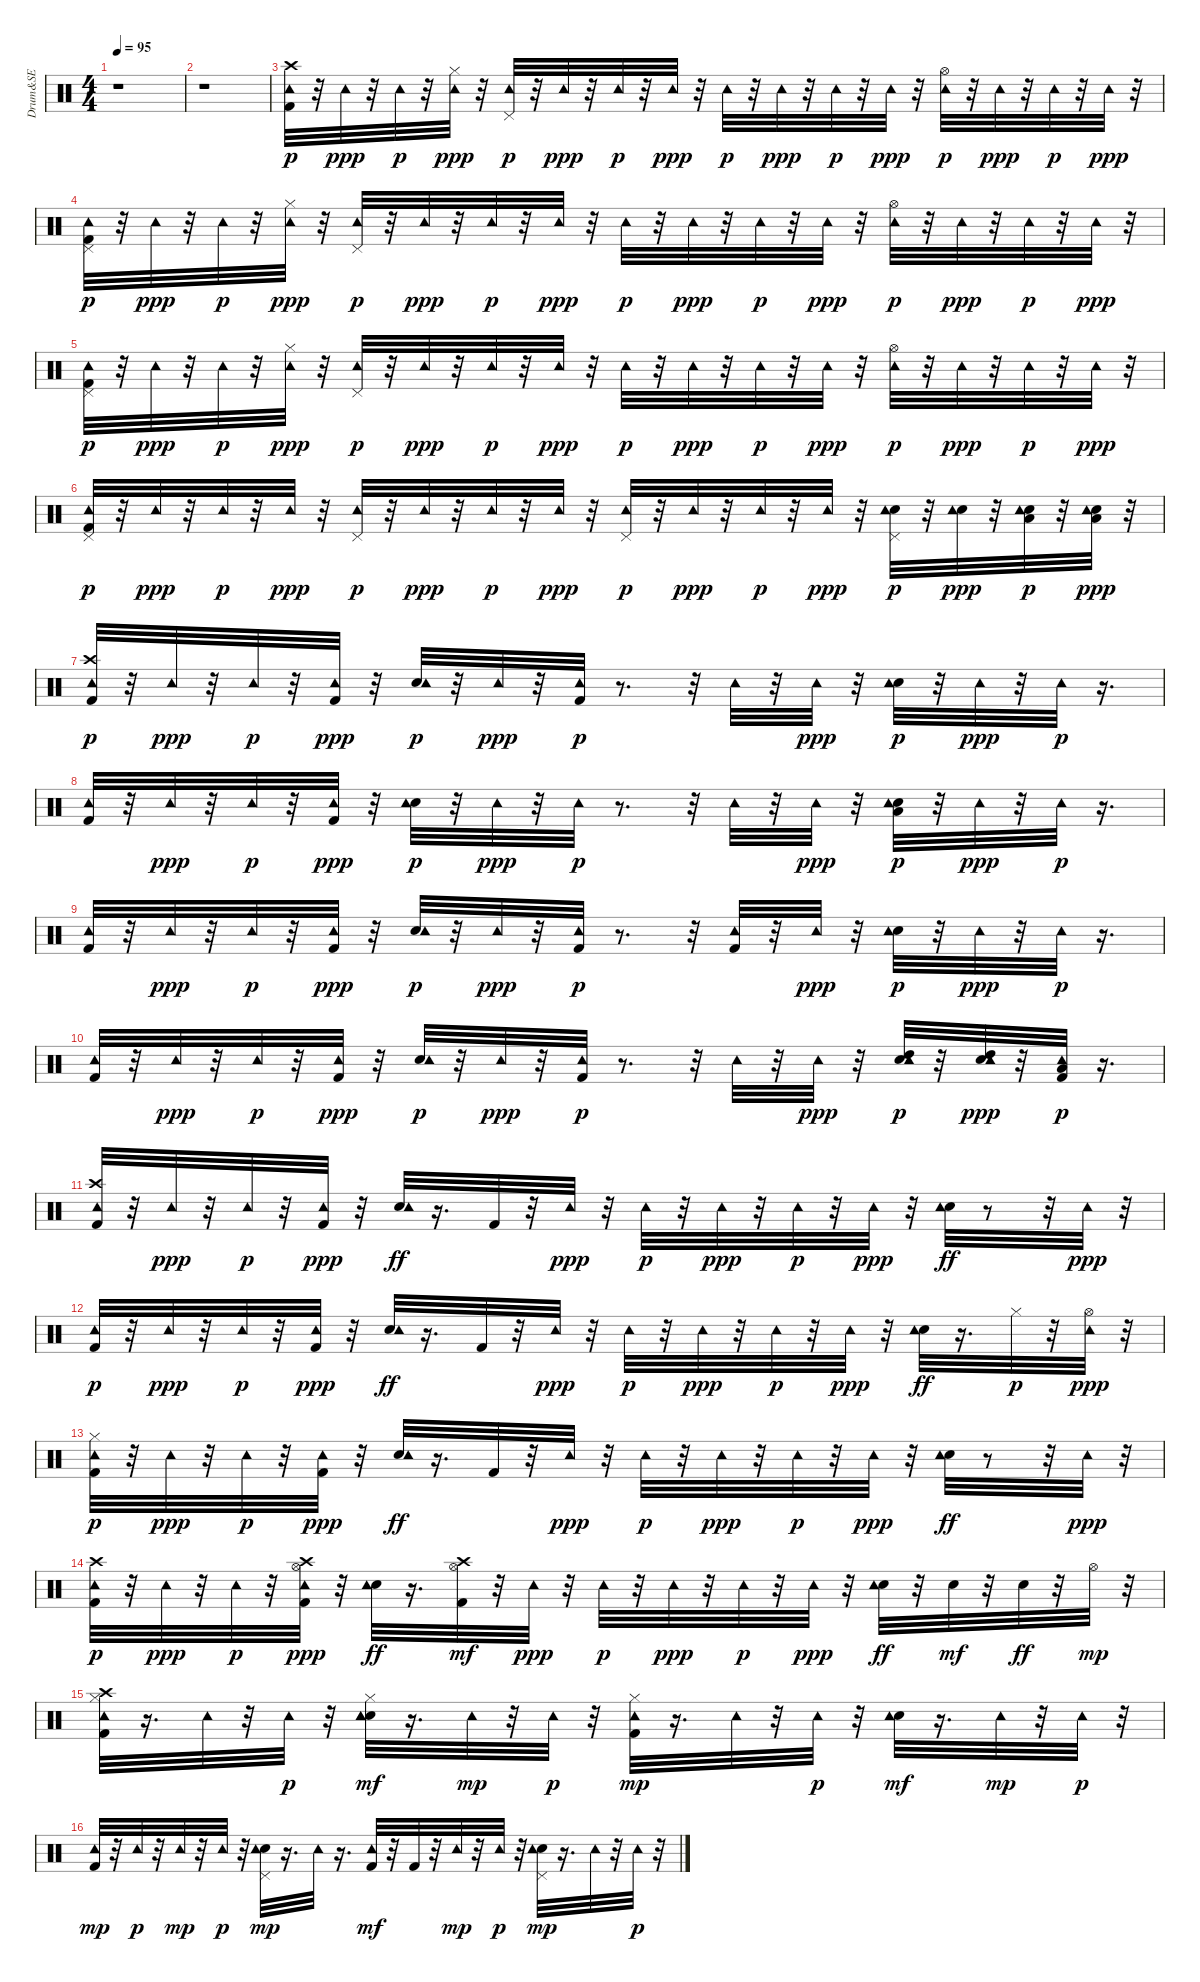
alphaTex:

\track ("Drum&SE" "Drum&SE") {instrument percussion}
\staff {score}
\articulation defaults
\ts (4 4)
\tempo 95
\clef neutral
\ks c
r.1{dy mp} |
r.1 |
("Kick (hit) 2" "Crash high (hit)" "Tambourine (hit)").32{dy p} r.32 "Tambourine (hit)".32{dy ppp} r.32 "Tambourine (hit)".32{dy p} r.32 ("Hi-Hat (closed)" "Tambourine (hit)").32{dy ppp} r.32 ("Pedal Hi-Hat (hit)" "Tambourine (hit)").32{dy p} r.32 "Tambourine (hit)".32{dy ppp} r.32 "Tambourine (hit)".32{dy p} r.32 "Tambourine (hit)".32{dy ppp} r.32 "Tambourine (hit)".32{dy p} r.32 "Tambourine (hit)".32{dy ppp} r.32 "Tambourine (hit)".32{dy p} r.32 "Tambourine (hit)".32{dy ppp} r.32 ("Hi-Hat (open)" "Tambourine (hit)").32{dy p} r.32 "Tambourine (hit)".32{dy ppp} r.32 "Tambourine (hit)".32{dy p} r.32 "Tambourine (hit)".32{dy ppp} r.32 |
("Kick (hit) 2" "Pedal Hi-Hat (hit)" "Tambourine (hit)").32{dy p} r.32 "Tambourine (hit)".32{dy ppp} r.32 "Tambourine (hit)".32{dy p} r.32 ("Hi-Hat (closed)" "Tambourine (hit)").32{dy ppp} r.32 ("Pedal Hi-Hat (hit)" "Tambourine (hit)").32{dy p} r.32 "Tambourine (hit)".32{dy ppp} r.32 "Tambourine (hit)".32{dy p} r.32 "Tambourine (hit)".32{dy ppp} r.32 "Tambourine (hit)".32{dy p} r.32 "Tambourine (hit)".32{dy ppp} r.32 "Tambourine (hit)".32{dy p} r.32 "Tambourine (hit)".32{dy ppp} r.32 ("Hi-Hat (open)" "Tambourine (hit)").32{dy p} r.32 "Tambourine (hit)".32{dy ppp} r.32 "Tambourine (hit)".32{dy p} r.32 "Tambourine (hit)".32{dy ppp} r.32 |
("Kick (hit) 2" "Pedal Hi-Hat (hit)" "Tambourine (hit)").32{dy p} r.32 "Tambourine (hit)".32{dy ppp} r.32 "Tambourine (hit)".32{dy p} r.32 ("Hi-Hat (closed)" "Tambourine (hit)").32{dy ppp} r.32 ("Pedal Hi-Hat (hit)" "Tambourine (hit)").32{dy p} r.32 "Tambourine (hit)".32{dy ppp} r.32 "Tambourine (hit)".32{dy p} r.32 "Tambourine (hit)".32{dy ppp} r.32 "Tambourine (hit)".32{dy p} r.32 "Tambourine (hit)".32{dy ppp} r.32 "Tambourine (hit)".32{dy p} r.32 "Tambourine (hit)".32{dy ppp} r.32 ("Hi-Hat (open)" "Tambourine (hit)").32{dy p} r.32 "Tambourine (hit)".32{dy ppp} r.32 "Tambourine (hit)".32{dy p} r.32 "Tambourine (hit)".32{dy ppp} r.32 |
("Kick (hit) 2" "Pedal Hi-Hat (hit)" "Tambourine (hit)").32{dy p} r.32 "Tambourine (hit)".32{dy ppp} r.32 "Tambourine (hit)".32{dy p} r.32 "Tambourine (hit)".32{dy ppp} r.32 ("Pedal Hi-Hat (hit)" "Tambourine (hit)").32{dy p} r.32 "Tambourine (hit)".32{dy ppp} r.32 "Tambourine (hit)".32{dy p} r.32 "Tambourine (hit)".32{dy ppp} r.32 ("Pedal Hi-Hat (hit)" "Tambourine (hit)").32{dy p} r.32 "Tambourine (hit)".32{dy ppp} r.32 "Tambourine (hit)".32{dy p} r.32 "Tambourine (hit)".32{dy ppp} r.32 ("Snare (hit) 2" "Pedal Hi-Hat (hit)" "Tambourine (hit)").32{dy p} r.32 ("Snare (hit) 2" "Tambourine (hit)").32{dy ppp} r.32 ("Snare (hit) 2" "Low Tom (hit)" "Tambourine (hit)").32{dy p} r.32 ("Snare (hit) 2" "Low Floor Tom (hit)" "Tambourine (hit)").32{dy ppp} r.32 |
("Kick (hit) 2" "Crash high (hit)" "Tambourine (hit)").32{dy p} r.32 "Tambourine (hit)".32{dy ppp} r.32 "Tambourine (hit)".32{dy p} r.32 ("Kick (hit) 2" "Tambourine (hit)").32{dy ppp} r.32 ("Snare (hit) 2" "Tambourine (hit)").32{dy p} r.32 "Tambourine (hit)".32{dy ppp} r.32 ("Kick (hit) 2" "Tambourine (hit)").32{dy p} r.8{d} r.32 "Tambourine (hit)".32 r.32 "Tambourine (hit)".32{dy ppp} r.32 ("Snare (hit) 2" "Tambourine (hit)").32{dy p} r.32 "Tambourine (hit)".32{dy ppp} r.32 "Tambourine (hit)".32{dy p} r.16{d} |
("Kick (hit) 2" "Tambourine (hit)").32 r.32 "Tambourine (hit)".32{dy ppp} r.32 "Tambourine (hit)".32{dy p} r.32 ("Kick (hit) 2" "Tambourine (hit)").32{dy ppp} r.32 ("Snare (hit) 2" "Tambourine (hit)").32{dy p} r.32 "Tambourine (hit)".32{dy ppp} r.32 "Tambourine (hit)".32{dy p} r.8{d} r.32 "Tambourine (hit)".32 r.32 "Tambourine (hit)".32{dy ppp} r.32 ("Snare (hit) 2" "Low Floor Tom (hit)" "Tambourine (hit)").32{dy p} r.32 "Tambourine (hit)".32{dy ppp} r.32 "Tambourine (hit)".32{dy p} r.16{d} |
("Kick (hit) 2" "Tambourine (hit)").32 r.32 "Tambourine (hit)".32{dy ppp} r.32 "Tambourine (hit)".32{dy p} r.32 ("Kick (hit) 2" "Tambourine (hit)").32{dy ppp} r.32 ("Snare (hit) 2" "Tambourine (hit)").32{dy p} r.32 "Tambourine (hit)".32{dy ppp} r.32 ("Kick (hit) 2" "Tambourine (hit)").32{dy p} r.8{d} r.32 ("Kick (hit) 2" "Tambourine (hit)").32 r.32 "Tambourine (hit)".32{dy ppp} r.32 ("Snare (hit) 2" "Tambourine (hit)").32{dy p} r.32 "Tambourine (hit)".32{dy ppp} r.32 "Tambourine (hit)".32{dy p} r.16{d} |
("Kick (hit) 2" "Tambourine (hit)").32 r.32 "Tambourine (hit)".32{dy ppp} r.32 "Tambourine (hit)".32{dy p} r.32 ("Kick (hit) 2" "Tambourine (hit)").32{dy ppp} r.32 ("Snare (hit) 2" "Tambourine (hit)").32{dy p} r.32 "Tambourine (hit)".32{dy ppp} r.32 ("Kick (hit) 2" "Tambourine (hit)").32{dy p} r.8{d} r.32 "Tambourine (hit)".32 r.32 "Tambourine (hit)".32{dy ppp} r.32 ("Snare (hit) 2" "High Tom (hit)" "Tambourine (hit)").32{dy p} r.32 ("Snare (hit) 2" "High Tom (hit)" "Tambourine (hit)").32{dy ppp} r.32 ("Kick (hit) 2" "Low Floor Tom (hit)" "Tambourine (hit)").32{dy p} r.16{d} |
("Kick (hit) 2" "Crash high (hit)" "Tambourine (hit)").32 r.32 "Tambourine (hit)".32{dy ppp} r.32 "Tambourine (hit)".32{dy p} r.32 ("Kick (hit) 2" "Tambourine (hit)").32{dy ppp} r.32 ("Snare (hit) 2" "Tambourine (hit)").32{dy ff} r.16{d} "Kick (hit) 2".32 r.32 "Tambourine (hit)".32{dy ppp} r.32 "Tambourine (hit)".32{dy p} r.32 "Tambourine (hit)".32{dy ppp} r.32 "Tambourine (hit)".32{dy p} r.32 "Tambourine (hit)".32{dy ppp} r.32 ("Snare (hit) 2" "Tambourine (hit)").32{dy ff} r.8 r.32 "Tambourine (hit)".32{dy ppp} r.32 |
("Kick (hit) 2" "Tambourine (hit)").32{dy p} r.32 "Tambourine (hit)".32{dy ppp} r.32 "Tambourine (hit)".32{dy p} r.32 ("Kick (hit) 2" "Tambourine (hit)").32{dy ppp} r.32 ("Snare (hit) 2" "Tambourine (hit)").32{dy ff} r.16{d} "Kick (hit) 2".32 r.32 "Tambourine (hit)".32{dy ppp} r.32 "Tambourine (hit)".32{dy p} r.32 "Tambourine (hit)".32{dy ppp} r.32 "Tambourine (hit)".32{dy p} r.32 "Tambourine (hit)".32{dy ppp} r.32 ("Snare (hit) 2" "Tambourine (hit)").32{dy ff} r.16{d} "Hi-Hat (closed)".32{dy p} r.32 ("Hi-Hat (open)" "Tambourine (hit)").32{dy ppp} r.32 |
("Kick (hit) 2" "Hi-Hat (closed)" "Tambourine (hit)").32{dy p} r.32 "Tambourine (hit)".32{dy ppp} r.32 "Tambourine (hit)".32{dy p} r.32 ("Kick (hit) 2" "Tambourine (hit)").32{dy ppp} r.32 ("Snare (hit) 2" "Tambourine (hit)").32{dy ff} r.16{d} "Kick (hit) 2".32 r.32 "Tambourine (hit)".32{dy ppp} r.32 "Tambourine (hit)".32{dy p} r.32 "Tambourine (hit)".32{dy ppp} r.32 "Tambourine (hit)".32{dy p} r.32 "Tambourine (hit)".32{dy ppp} r.32 ("Snare (hit) 2" "Tambourine (hit)").32{dy ff} r.8 r.32 "Tambourine (hit)".32{dy ppp} r.32 |
("Kick (hit) 2" "Crash high (hit)" "Tambourine (hit)").32{dy p} r.32 "Tambourine (hit)".32{dy ppp} r.32 "Tambourine (hit)".32{dy p} r.32 ("Kick (hit) 2" "Crash high (hit)" "Hi-Hat (open)" "Tambourine (hit)").32{dy ppp} r.32 ("Snare (hit) 2" "Tambourine (hit)").32{dy ff} r.16{d} ("Kick (hit) 2" "Hi-Hat (open)" "Crash high (hit)").32{dy mf} r.32 "Tambourine (hit)".32{dy ppp} r.32 "Tambourine (hit)".32{dy p} r.32 "Tambourine (hit)".32{dy ppp} r.32 "Tambourine (hit)".32{dy p} r.32 "Tambourine (hit)".32{dy ppp} r.32 ("Snare (hit) 2" "Tambourine (hit)").32{dy ff} r.32 "Snare (hit) 2".32{dy mf} r.32 "Snare (hit) 2".32{dy ff} r.32 "Hi-Hat (open)".32{dy mp} r.32 |
("Kick (hit) 2" "Crash high (hit)" "Hi-Hat (closed)" "Tambourine (hit)").32 r.16{d} "Tambourine (hit)".32 r.32 "Tambourine (hit)".32{dy p} r.32 ("Snare (hit) 2" "Tambourine (hit)" "Hi-Hat (closed)" "Tambourine (hit)").32{dy mf} r.16{d} "Tambourine (hit)".32{dy mp} r.32 "Tambourine (hit)".32{dy p} r.32 ("Kick (hit) 2" "Hi-Hat (closed)" "Tambourine (hit)").32{dy mp} r.16{d} "Tambourine (hit)".32 r.32 "Tambourine (hit)".32{dy p} r.32 ("Snare (hit) 2" "Tambourine (hit)").32{dy mf} r.16{d} "Tambourine (hit)".32{dy mp} r.32 "Tambourine (hit)".32{dy p} r.32 |
("Kick (hit) 2" "Tambourine (hit)").32{dy mp} r.32 "Tambourine (hit)".32{dy p} r.32 "Tambourine (hit)".32{dy mp} r.32 "Tambourine (hit)".32{dy p} r.32 ("Snare (hit) 2" "Pedal Hi-Hat (hit)" "Tambourine (hit)").32{dy mp} r.16{d} "Tambourine (hit)".32 r.16{d} ("Kick (hit) 2" "Tambourine (hit)").32{dy mf} r.32 "Kick (hit) 2".32 r.32 "Tambourine (hit)".32{dy mp} r.32 "Tambourine (hit)".32{dy p} r.32 ("Snare (hit) 2" "Pedal Hi-Hat (hit)" "Tambourine (hit)").32{dy mp} r.16{d} "Tambourine (hit)".32 r.32 "Tambourine (hit)".32{dy p} r.32
